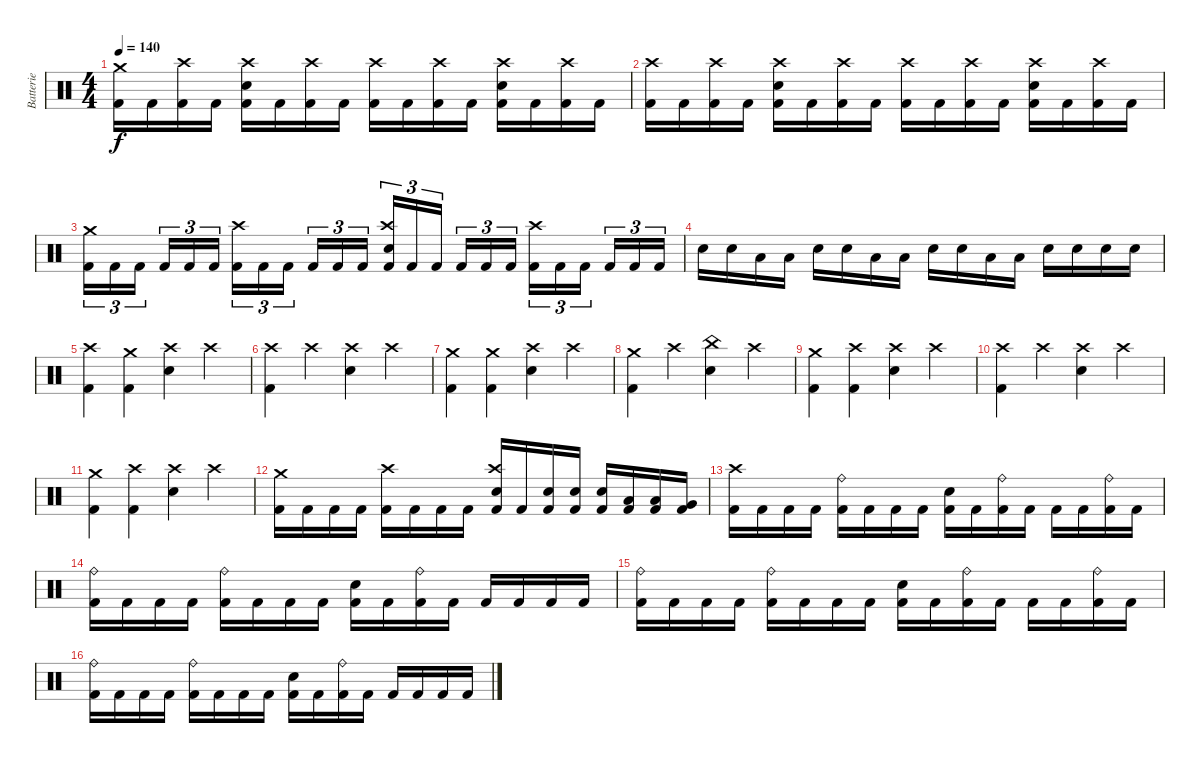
\track ("Batterie" "Batterie") {instrument percussion}
\staff {score}
\articulation defaults
\ts (4 4)
\tempo 140
\clef neutral
\ks c
("Crash medium (hit)" "Kick (hit) 2").16{dy f} "Kick (hit) 2".16 ("Crash high (hit)" "Kick (hit) 2").16 "Kick (hit) 2".16 ("Crash high (hit)" "Electric Snare (hit)" "Kick (hit) 2").16 "Kick (hit) 2".16 ("Crash high (hit)" "Kick (hit) 2").16 "Kick (hit) 2".16 ("Crash high (hit)" "Kick (hit) 2").16 "Kick (hit) 2".16 ("Crash high (hit)" "Kick (hit) 2").16 "Kick (hit) 2".16 ("Crash high (hit)" "Electric Snare (hit)" "Kick (hit) 2").16 "Kick (hit) 2".16 ("Crash high (hit)" "Kick (hit) 2").16 "Kick (hit) 2".16 |
("Crash high (hit)" "Kick (hit) 2").16 "Kick (hit) 2".16 ("Crash high (hit)" "Kick (hit) 2").16 "Kick (hit) 2".16 ("Crash high (hit)" "Electric Snare (hit)" "Kick (hit) 2").16 "Kick (hit) 2".16 ("Crash high (hit)" "Kick (hit) 2").16 "Kick (hit) 2".16 ("Crash high (hit)" "Kick (hit) 2").16 "Kick (hit) 2".16 ("Crash high (hit)" "Kick (hit) 2").16 "Kick (hit) 2".16 ("Crash high (hit)" "Electric Snare (hit)" "Kick (hit) 2").16 "Kick (hit) 2".16 ("Crash high (hit)" "Kick (hit) 2").16 "Kick (hit) 2".16 |
("Crash medium (hit)" "Kick (hit) 2").16{tu (3 2)} "Kick (hit) 2".16{tu (3 2)} "Kick (hit) 2".16{tu (3 2) beam splitsecondary} "Kick (hit) 2".16{tu (3 2)} "Kick (hit) 2".16{tu (3 2)} "Kick (hit) 2".16{tu (3 2)} ("Crash high (hit)" "Kick (hit) 2").16{tu (3 2)} "Kick (hit) 2".16{tu (3 2)} "Kick (hit) 2".16{tu (3 2) beam splitsecondary} "Kick (hit) 2".16{tu (3 2)} "Kick (hit) 2".16{tu (3 2)} "Kick (hit) 2".16{tu (3 2)} ("Crash high (hit)" "Electric Snare (hit)" "Kick (hit) 2").16{tu (3 2)} "Kick (hit) 2".16{tu (3 2)} "Kick (hit) 2".16{tu (3 2) beam splitsecondary} "Kick (hit) 2".16{tu (3 2)} "Kick (hit) 2".16{tu (3 2)} "Kick (hit) 2".16{tu (3 2)} ("Crash high (hit)" "Kick (hit) 2").16{tu (3 2)} "Kick (hit) 2".16{tu (3 2)} "Kick (hit) 2".16{tu (3 2) beam splitsecondary} "Kick (hit) 2".16{tu (3 2)} "Kick (hit) 2".16{tu (3 2)} "Kick (hit) 2".16{tu (3 2)} |
"Electric Snare (hit)".16 "Electric Snare (hit)".16 "Low Tom (hit)".16 "Low Tom (hit)".16 "Electric Snare (hit)".16 "Electric Snare (hit)".16 "Low Tom (hit)".16 "Low Tom (hit)".16 "Electric Snare (hit)".16 "Electric Snare (hit)".16 "Low Tom (hit)".16 "Low Tom (hit)".16 "Electric Snare (hit)".16 "Electric Snare (hit)".16 "Electric Snare (hit)".16 "Electric Snare (hit)".16 |
("Crash high (hit)" "Kick (hit) 2").4 ("Crash medium (hit)" "Kick (hit) 2").4 ("Crash high (hit)" "Electric Snare (hit)").4 "Crash high (hit)".4 |
("Crash high (hit)" "Kick (hit) 2").4 "Crash high (hit)".4 ("Crash high (hit)" "Electric Snare (hit)").4 "Crash high (hit)".4 |
("Crash medium (hit)" "Kick (hit) 2").4 ("Crash medium (hit)" "Kick (hit) 2").4 ("Crash high (hit)" "Electric Snare (hit)").4 "Crash high (hit)".4 |
("Crash medium (hit)" "Kick (hit) 2").4 "Crash high (hit)".4 ("China (hit)" "Electric Snare (hit)").4 "Crash high (hit)".4 |
("Crash medium (hit)" "Kick (hit) 2").4 ("Crash high (hit)" "Kick (hit) 2").4 ("Crash high (hit)" "Electric Snare (hit)").4 "Crash high (hit)".4 |
("Crash high (hit)" "Kick (hit) 2").4 "Crash high (hit)".4 ("Crash high (hit)" "Electric Snare (hit)").4 "Crash high (hit)".4 |
("Crash medium (hit)" "Kick (hit) 2").4 ("Crash high (hit)" "Kick (hit) 2").4 ("Crash high (hit)" "Electric Snare (hit)").4 "Crash high (hit)".4 |
("Crash medium (hit)" "Kick (hit) 2").16 "Kick (hit) 2".16 "Kick (hit) 2".16 "Kick (hit) 2".16 ("Crash high (hit)" "Kick (hit) 2").16 "Kick (hit) 2".16 "Kick (hit) 2".16 "Kick (hit) 2".16 ("Crash high (hit)" "Electric Snare (hit)" "Kick (hit) 2").16 "Kick (hit) 2".16 ("Electric Snare (hit)" "Kick (hit) 2").16 ("Electric Snare (hit)" "Kick (hit) 2").16 ("Electric Snare (hit)" "Kick (hit) 2").16 ("Low Tom (hit)" "Kick (hit) 2").16 ("Low Tom (hit)" "Kick (hit) 2").16 ("Very Low Tom (hit)" "Kick (hit) 2").16 |
("Crash high (hit)" "Kick (hit) 2").16 "Kick (hit) 2".16 "Kick (hit) 2".16 "Kick (hit) 2".16 ("Ride (bell)" "Kick (hit) 2").16 "Kick (hit) 2".16 "Kick (hit) 2".16 "Kick (hit) 2".16 ("Electric Snare (hit)" "Kick (hit) 2").16 "Kick (hit) 2".16 ("Ride (bell)" "Kick (hit) 2").16 "Kick (hit) 2".16 "Kick (hit) 2".16 "Kick (hit) 2".16 ("Ride (bell)" "Kick (hit) 2").16 "Kick (hit) 2".16 |
("Ride (bell)" "Kick (hit) 2").16 "Kick (hit) 2".16 "Kick (hit) 2".16 "Kick (hit) 2".16 ("Ride (bell)" "Kick (hit) 2").16 "Kick (hit) 2".16 "Kick (hit) 2".16 "Kick (hit) 2".16 ("Electric Snare (hit)" "Kick (hit) 2").16 "Kick (hit) 2".16 ("Ride (bell)" "Kick (hit) 2").16 "Kick (hit) 2".16 "Kick (hit) 2".16 "Kick (hit) 2".16 "Kick (hit) 2".16 "Kick (hit) 2".16 |
("Ride (bell)" "Kick (hit) 2").16 "Kick (hit) 2".16 "Kick (hit) 2".16 "Kick (hit) 2".16 ("Ride (bell)" "Kick (hit) 2").16 "Kick (hit) 2".16 "Kick (hit) 2".16 "Kick (hit) 2".16 ("Electric Snare (hit)" "Kick (hit) 2").16 "Kick (hit) 2".16 ("Ride (bell)" "Kick (hit) 2").16 "Kick (hit) 2".16 "Kick (hit) 2".16 "Kick (hit) 2".16 ("Ride (bell)" "Kick (hit) 2").16 "Kick (hit) 2".16 |
("Ride (bell)" "Kick (hit) 2").16 "Kick (hit) 2".16 "Kick (hit) 2".16 "Kick (hit) 2".16 ("Ride (bell)" "Kick (hit) 2").16 "Kick (hit) 2".16 "Kick (hit) 2".16 "Kick (hit) 2".16 ("Electric Snare (hit)" "Kick (hit) 2").16 "Kick (hit) 2".16 ("Ride (bell)" "Kick (hit) 2").16 "Kick (hit) 2".16 "Kick (hit) 2".16 "Kick (hit) 2".16 "Kick (hit) 2".16 "Kick (hit) 2".16
